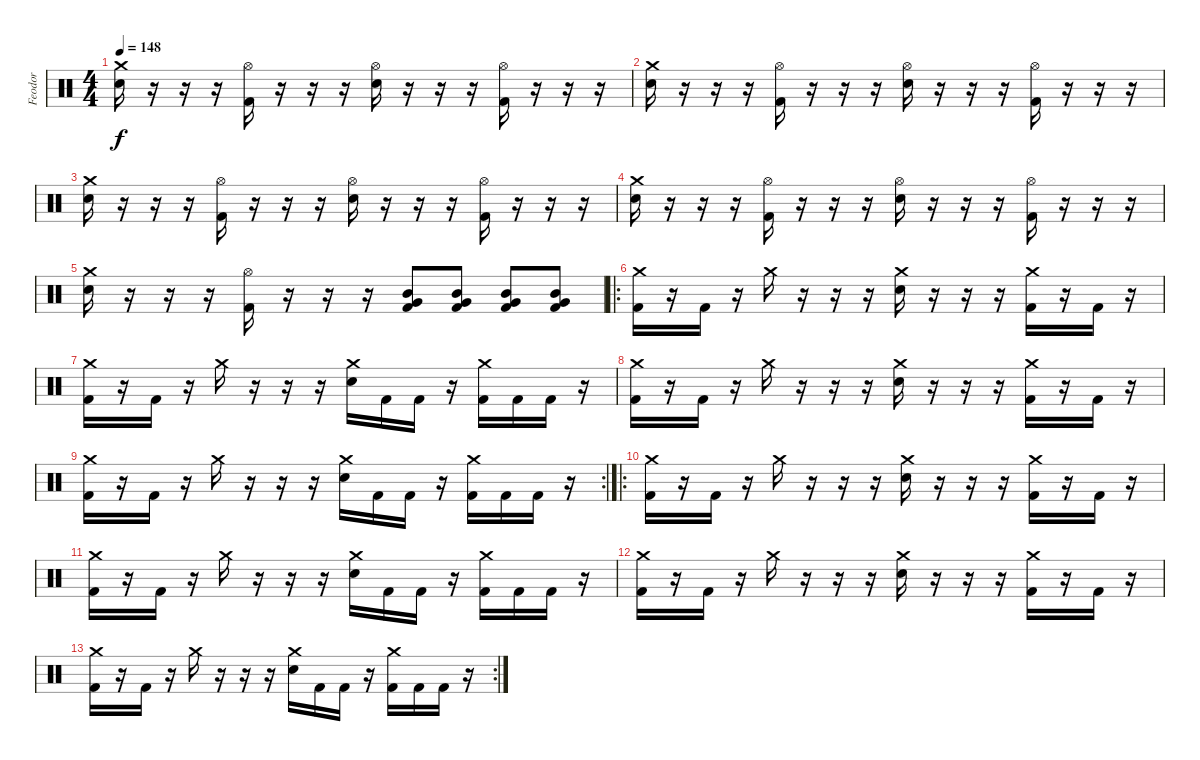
\track ("Feodor" "Feodor") {instrument percussion}
\staff {score}
\articulation defaults
\ts (4 4)
\tempo 148
\clef neutral
\ks c
("Crash medium (hit)" "Electric Snare (hit)").16{dy f} r.16 r.16 r.16 ("Hi-Hat (open)" "Kick (hit) 2").16 r.16 r.16 r.16 ("Hi-Hat (open)" "Electric Snare (hit)").16 r.16 r.16 r.16 ("Hi-Hat (open)" "Kick (hit) 2").16 r.16 r.16 r.16 |
("Crash medium (hit)" "Electric Snare (hit)").16 r.16 r.16 r.16 ("Hi-Hat (open)" "Kick (hit) 2").16 r.16 r.16 r.16 ("Hi-Hat (open)" "Electric Snare (hit)").16 r.16 r.16 r.16 ("Hi-Hat (open)" "Kick (hit) 2").16 r.16 r.16 r.16 |
("Crash medium (hit)" "Electric Snare (hit)").16 r.16 r.16 r.16 ("Hi-Hat (open)" "Kick (hit) 2").16 r.16 r.16 r.16 ("Hi-Hat (open)" "Electric Snare (hit)").16 r.16 r.16 r.16 ("Hi-Hat (open)" "Kick (hit) 2").16 r.16 r.16 r.16 |
("Crash medium (hit)" "Electric Snare (hit)").16 r.16 r.16 r.16 ("Hi-Hat (open)" "Kick (hit) 2").16 r.16 r.16 r.16 ("Hi-Hat (open)" "Electric Snare (hit)").16 r.16 r.16 r.16 ("Hi-Hat (open)" "Kick (hit) 2").16 r.16 r.16 r.16 |
("Crash medium (hit)" "Electric Snare (hit)").16 r.16 r.16 r.16 ("Hi-Hat (open)" "Kick (hit) 2").16 r.16 r.16 r.16 ("Mid Tom (hit)" "Very Low Tom (hit)" "Kick (hit) 2").8 ("Mid Tom (hit)" "Very Low Tom (hit)" "Kick (hit) 2").8 ("Mid Tom (hit)" "Very Low Tom (hit)" "Kick (hit) 2").8 ("Mid Tom (hit)" "Very Low Tom (hit)" "Kick (hit) 2").8 |
\ro
("Crash medium (hit)" "Kick (hit) 2").16 r.16 "Kick (hit) 2".16 r.16 "Crash medium (hit)".16 r.16 r.16 r.16 ("Electric Snare (hit)" "Crash medium (hit)").16 r.16 r.16 r.16 ("Kick (hit) 2" "Crash medium (hit)").16 r.16 "Kick (hit) 2".16 r.16 |
("Crash medium (hit)" "Kick (hit) 2").16 r.16 "Kick (hit) 2".16 r.16 "Crash medium (hit)".16 r.16 r.16 r.16 ("Electric Snare (hit)" "Crash medium (hit)").16 "Kick (hit) 2".16 "Kick (hit) 2".16 r.16 ("Kick (hit) 2" "Crash medium (hit)").16 "Kick (hit) 2".16 "Kick (hit) 2".16 r.16 |
("Crash medium (hit)" "Kick (hit) 2").16 r.16 "Kick (hit) 2".16 r.16 "Crash medium (hit)".16 r.16 r.16 r.16 ("Electric Snare (hit)" "Crash medium (hit)").16 r.16 r.16 r.16 ("Kick (hit) 2" "Crash medium (hit)").16 r.16 "Kick (hit) 2".16 r.16 |
\rc 2
("Crash medium (hit)" "Kick (hit) 2").16 r.16 "Kick (hit) 2".16 r.16 "Crash medium (hit)".16 r.16 r.16 r.16 ("Electric Snare (hit)" "Crash medium (hit)").16 "Kick (hit) 2".16 "Kick (hit) 2".16 r.16 ("Kick (hit) 2" "Crash medium (hit)").16 "Kick (hit) 2".16 "Kick (hit) 2".16 r.16 |
\ro
("Crash medium (hit)" "Kick (hit) 2").16 r.16 "Kick (hit) 2".16 r.16 "Crash medium (hit)".16 r.16 r.16 r.16 ("Electric Snare (hit)" "Crash medium (hit)").16 r.16 r.16 r.16 ("Kick (hit) 2" "Crash medium (hit)").16 r.16 "Kick (hit) 2".16 r.16 |
("Crash medium (hit)" "Kick (hit) 2").16 r.16 "Kick (hit) 2".16 r.16 "Crash medium (hit)".16 r.16 r.16 r.16 ("Electric Snare (hit)" "Crash medium (hit)").16 "Kick (hit) 2".16 "Kick (hit) 2".16 r.16 ("Kick (hit) 2" "Crash medium (hit)").16 "Kick (hit) 2".16 "Kick (hit) 2".16 r.16 |
("Crash medium (hit)" "Kick (hit) 2").16 r.16 "Kick (hit) 2".16 r.16 "Crash medium (hit)".16 r.16 r.16 r.16 ("Electric Snare (hit)" "Crash medium (hit)").16 r.16 r.16 r.16 ("Kick (hit) 2" "Crash medium (hit)").16 r.16 "Kick (hit) 2".16 r.16 |
\rc 2
("Crash medium (hit)" "Kick (hit) 2").16 r.16 "Kick (hit) 2".16 r.16 "Crash medium (hit)".16 r.16 r.16 r.16 ("Electric Snare (hit)" "Crash medium (hit)").16 "Kick (hit) 2".16 "Kick (hit) 2".16 r.16 ("Kick (hit) 2" "Crash medium (hit)").16 "Kick (hit) 2".16 "Kick (hit) 2".16 r.16
